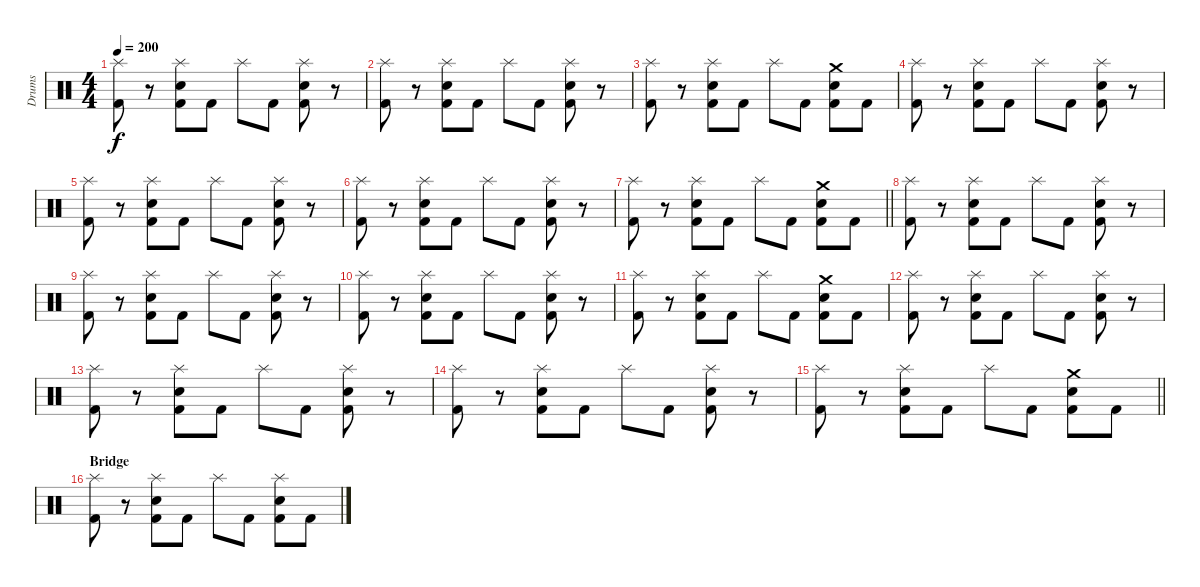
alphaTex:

\track ("Drums" "Drums") {instrument percussion}
\staff {score}
\articulation defaults
\ts (4 4)
\tempo 200
\clef neutral
\ks c
("Splash (hit)" "Kick (hit) 2").8{dy f} r.8 ("Splash (hit)" "Snare (hit) 2" "Kick (hit) 2").8 "Kick (hit) 2".8 "Splash (hit)".8 "Kick (hit) 2".8 ("Splash (hit)" "Snare (hit) 2" "Kick (hit) 2").8 r.8 |
("Splash (hit)" "Kick (hit) 2").8 r.8 ("Splash (hit)" "Snare (hit) 2" "Kick (hit) 2").8 "Kick (hit) 2".8 "Splash (hit)".8 "Kick (hit) 2".8 ("Splash (hit)" "Snare (hit) 2" "Kick (hit) 2").8 r.8 |
("Splash (hit)" "Kick (hit) 2").8 r.8 ("Splash (hit)" "Snare (hit) 2" "Kick (hit) 2").8 "Kick (hit) 2".8 "Splash (hit)".8 "Kick (hit) 2".8 ("Crash medium (hit)" "Snare (hit) 2" "Kick (hit) 2").8 "Kick (hit) 2".8 |
("Splash (hit)" "Kick (hit) 2").8 r.8 ("Splash (hit)" "Snare (hit) 2" "Kick (hit) 2").8 "Kick (hit) 2".8 "Splash (hit)".8 "Kick (hit) 2".8 ("Splash (hit)" "Snare (hit) 2" "Kick (hit) 2").8 r.8 |
("Splash (hit)" "Kick (hit) 2").8 r.8 ("Splash (hit)" "Snare (hit) 2" "Kick (hit) 2").8 "Kick (hit) 2".8 "Splash (hit)".8 "Kick (hit) 2".8 ("Splash (hit)" "Snare (hit) 2" "Kick (hit) 2").8 r.8 |
("Splash (hit)" "Kick (hit) 2").8 r.8 ("Splash (hit)" "Snare (hit) 2" "Kick (hit) 2").8 "Kick (hit) 2".8 "Splash (hit)".8 "Kick (hit) 2".8 ("Splash (hit)" "Snare (hit) 2" "Kick (hit) 2").8 r.8 |
\barLineRight lightlight
("Splash (hit)" "Kick (hit) 2").8 r.8 ("Splash (hit)" "Snare (hit) 2" "Kick (hit) 2").8 "Kick (hit) 2".8 "Splash (hit)".8 "Kick (hit) 2".8 ("Crash medium (hit)" "Snare (hit) 2" "Kick (hit) 2").8 "Kick (hit) 2".8 |
("Splash (hit)" "Kick (hit) 2").8 r.8 ("Splash (hit)" "Snare (hit) 2" "Kick (hit) 2").8 "Kick (hit) 2".8 "Splash (hit)".8 "Kick (hit) 2".8 ("Splash (hit)" "Snare (hit) 2" "Kick (hit) 2").8 r.8 |
("Splash (hit)" "Kick (hit) 2").8 r.8 ("Splash (hit)" "Snare (hit) 2" "Kick (hit) 2").8 "Kick (hit) 2".8 "Splash (hit)".8 "Kick (hit) 2".8 ("Splash (hit)" "Snare (hit) 2" "Kick (hit) 2").8 r.8 |
("Splash (hit)" "Kick (hit) 2").8 r.8 ("Splash (hit)" "Snare (hit) 2" "Kick (hit) 2").8 "Kick (hit) 2".8 "Splash (hit)".8 "Kick (hit) 2".8 ("Splash (hit)" "Snare (hit) 2" "Kick (hit) 2").8 r.8 |
("Splash (hit)" "Kick (hit) 2").8 r.8 ("Splash (hit)" "Snare (hit) 2" "Kick (hit) 2").8 "Kick (hit) 2".8 "Splash (hit)".8 "Kick (hit) 2".8 ("Crash medium (hit)" "Snare (hit) 2" "Kick (hit) 2").8 "Kick (hit) 2".8 |
("Splash (hit)" "Kick (hit) 2").8 r.8 ("Splash (hit)" "Snare (hit) 2" "Kick (hit) 2").8 "Kick (hit) 2".8 "Splash (hit)".8 "Kick (hit) 2".8 ("Splash (hit)" "Snare (hit) 2" "Kick (hit) 2").8 r.8 |
("Splash (hit)" "Kick (hit) 2").8 r.8 ("Splash (hit)" "Snare (hit) 2" "Kick (hit) 2").8 "Kick (hit) 2".8 "Splash (hit)".8 "Kick (hit) 2".8 ("Splash (hit)" "Snare (hit) 2" "Kick (hit) 2").8 r.8 |
("Splash (hit)" "Kick (hit) 2").8 r.8 ("Splash (hit)" "Snare (hit) 2" "Kick (hit) 2").8 "Kick (hit) 2".8 "Splash (hit)".8 "Kick (hit) 2".8 ("Splash (hit)" "Snare (hit) 2" "Kick (hit) 2").8 r.8 |
\barLineRight lightlight
("Splash (hit)" "Kick (hit) 2").8 r.8 ("Splash (hit)" "Snare (hit) 2" "Kick (hit) 2").8 "Kick (hit) 2".8 "Splash (hit)".8 "Kick (hit) 2".8 ("Crash medium (hit)" "Snare (hit) 2" "Kick (hit) 2").8 "Kick (hit) 2".8 |
\section ("" "Bridge")
("Splash (hit)" "Kick (hit) 2").8 r.8 ("Splash (hit)" "Snare (hit) 2" "Kick (hit) 2").8 "Kick (hit) 2".8 "Splash (hit)".8 "Kick (hit) 2".8 ("Splash (hit)" "Snare (hit) 2" "Kick (hit) 2").8 "Kick (hit) 2".8
